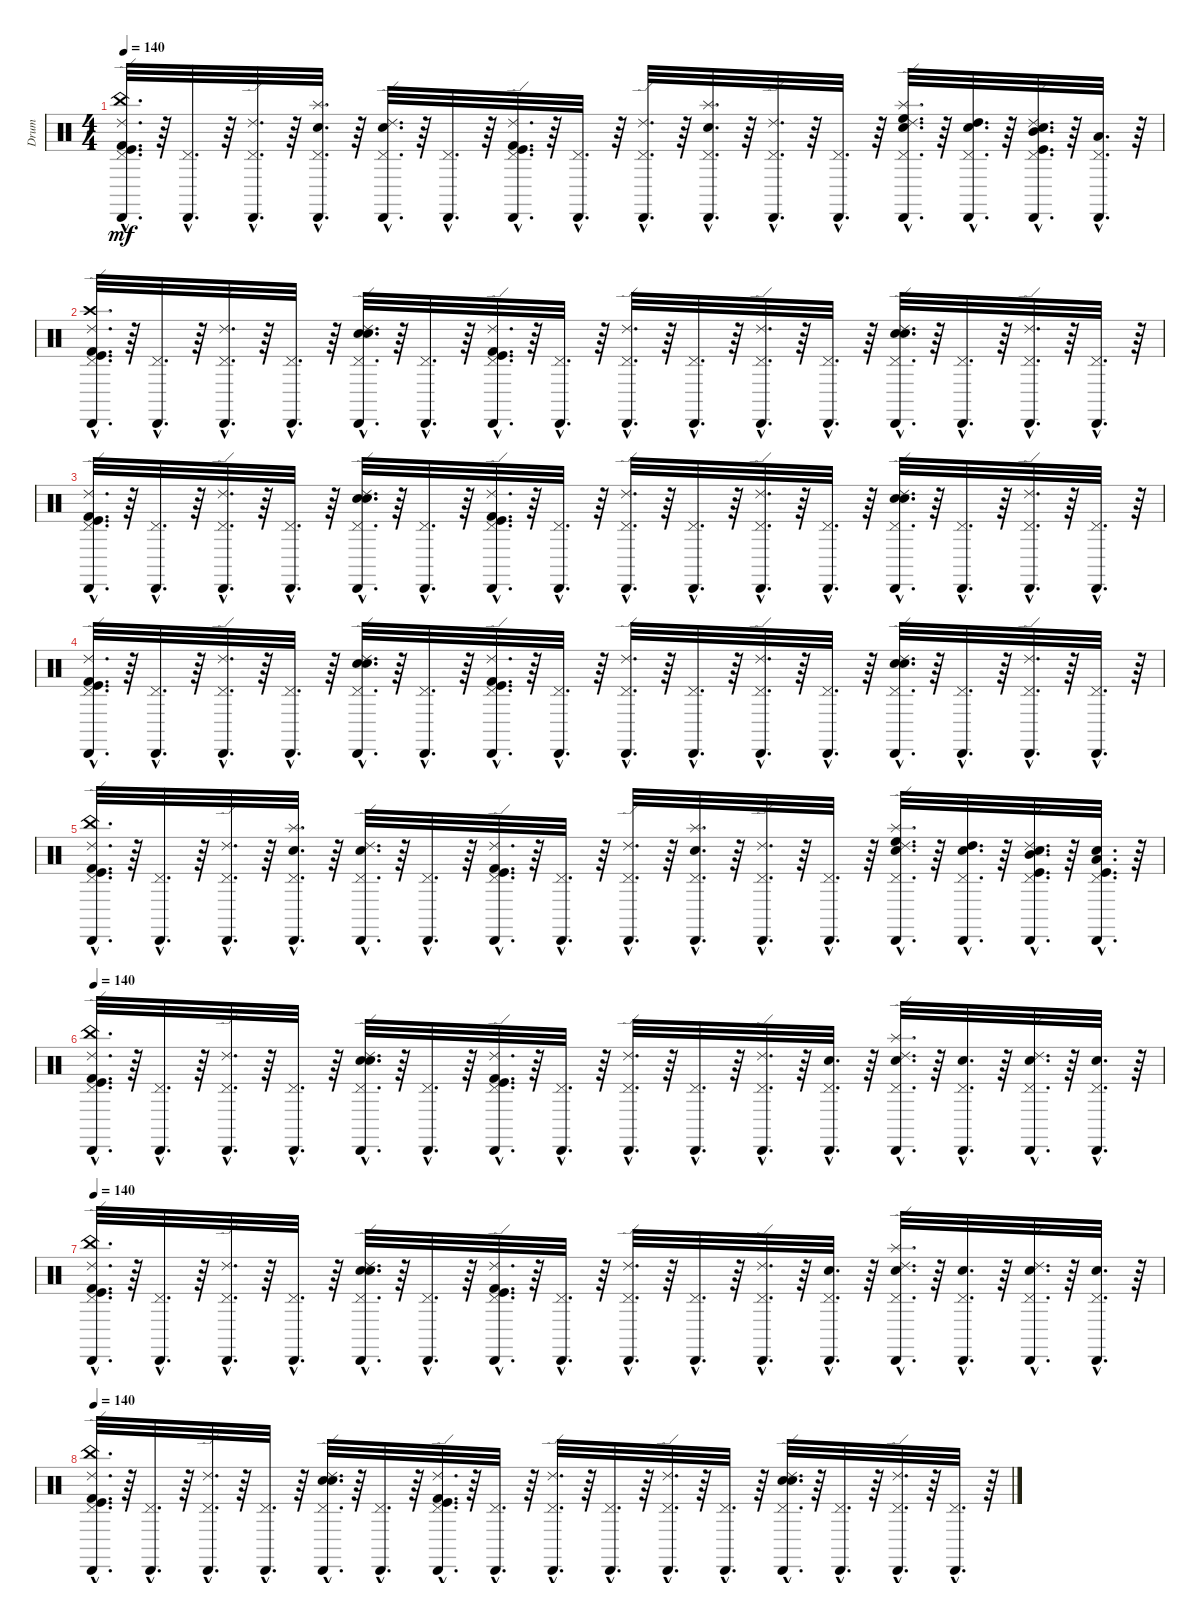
\track ("Drum" "Drum") {instrument percussion}
\staff {score}
\articulation defaults
\ts (4 4)
\tempo 140
\clef neutral
\ks c
("China (hit)"{hac} "Cabasa (hit)"{hac} "Ride (edge) 2"{hac} "Kick (hit) 2"{hac} "Kick (hit)"{hac} "Pedal Hi-Hat (hit)"{hac}).32{d dy mf} r.64 ("Pedal Hi-Hat (hit)"{hac} "Cabasa (hit)"{hac}).32{d} r.64 ("Ride (edge) 2"{hac} "Cabasa (hit)"{hac} "Pedal Hi-Hat (hit)"{hac}).32{d} r.64 ("Splash (hit)"{hac} "Snare (hit) 2"{hac} "Pedal Hi-Hat (hit)"{hac} "Cabasa (hit)"{hac}).32{d} r.64 ("Snare (hit) 2"{hac} "Ride (edge) 2"{hac} "Cabasa (hit)"{hac} "Pedal Hi-Hat (hit)"{hac}).32{d} r.64 ("Cabasa (hit)"{hac} "Pedal Hi-Hat (hit)"{hac}).32{d} r.64 ("Ride (edge) 2"{hac} "Cabasa (hit)"{hac} "Kick (hit)"{hac} "Kick (hit) 2"{hac} "Pedal Hi-Hat (hit)"{hac}).32{d} r.64 ("Pedal Hi-Hat (hit)"{hac} "Cabasa (hit)"{hac}).32{d} r.64 ("Cabasa (hit)"{hac} "Pedal Hi-Hat (hit)"{hac} "Ride (edge) 2"{hac}).32{d} r.64 ("Splash (hit)"{hac} "Snare (hit) 2"{hac} "Pedal Hi-Hat (hit)"{hac} "Cabasa (hit)"{hac}).32{d} r.64 ("Pedal Hi-Hat (hit)"{hac} "Cabasa (hit)"{hac} "Ride (edge) 2"{hac}).32{d} r.64 ("Pedal Hi-Hat (hit)"{hac} "Cabasa (hit)"{hac}).32{d} r.64 ("High Floor Tom (hit)"{hac} "Splash (hit)"{hac} "Snare (hit) 2"{hac} "Ride (edge) 2"{hac} "Cabasa (hit)"{hac} "Pedal Hi-Hat (hit)"{hac}).32{d} r.64 ("High Tom (hit)"{hac} "Snare (hit) 2"{hac} "Pedal Hi-Hat (hit)"{hac} "Cabasa (hit)"{hac}).32{d} r.64 ("Kick (hit)"{hac} "Mid Tom (hit)"{hac} "Snare (hit) 2"{hac} "Ride (edge) 2"{hac} "Cabasa (hit)"{hac} "Pedal Hi-Hat (hit)"{hac}).32{d} r.64 ("Low Tom (hit)"{hac} "Pedal Hi-Hat (hit)"{hac} "Cabasa (hit)"{hac}).32{d} r.64 |
("Crash high (hit)"{hac} "Kick (hit) 2"{hac} "Pedal Hi-Hat (hit)"{hac} "Cabasa (hit)"{hac} "Kick (hit)"{hac} "Ride (edge) 2"{hac}).32{d} r.64 ("Cabasa (hit)"{hac} "Pedal Hi-Hat (hit)"{hac}).32{d} r.64 ("Pedal Hi-Hat (hit)"{hac} "Ride (edge) 2"{hac} "Cabasa (hit)"{hac}).32{d} r.64 ("Cabasa (hit)"{hac} "Pedal Hi-Hat (hit)"{hac}).32{d} r.64 ("Cabasa (hit)"{hac} "Pedal Hi-Hat (hit)"{hac} "Electric Snare (hit)"{hac} "Snare (hit) 2"{hac} "Ride (edge) 2"{hac}).32{d} r.64 ("Cabasa (hit)"{hac} "Pedal Hi-Hat (hit)"{hac}).32{d} r.64 ("Kick (hit)"{hac} "Cabasa (hit)"{hac} "Pedal Hi-Hat (hit)"{hac} "Ride (edge) 2"{hac} "Kick (hit) 2"{hac}).32{d} r.64 ("Pedal Hi-Hat (hit)"{hac} "Cabasa (hit)"{hac}).32{d} r.64 ("Pedal Hi-Hat (hit)"{hac} "Cabasa (hit)"{hac} "Ride (edge) 2"{hac}).32{d} r.64 ("Cabasa (hit)"{hac} "Pedal Hi-Hat (hit)"{hac}).32{d} r.64 ("Cabasa (hit)"{hac} "Ride (edge) 2"{hac} "Pedal Hi-Hat (hit)"{hac}).32{d} r.64 ("Cabasa (hit)"{hac} "Pedal Hi-Hat (hit)"{hac}).32{d} r.64 ("Ride (edge) 2"{hac} "Pedal Hi-Hat (hit)"{hac} "Cabasa (hit)"{hac} "Electric Snare (hit)"{hac} "Snare (hit) 2"{hac}).32{d} r.64 ("Pedal Hi-Hat (hit)"{hac} "Cabasa (hit)"{hac}).32{d} r.64 ("Cabasa (hit)"{hac} "Ride (edge) 2"{hac} "Pedal Hi-Hat (hit)"{hac}).32{d} r.64 ("Cabasa (hit)"{hac} "Pedal Hi-Hat (hit)"{hac}).32{d} r.64 |
("Pedal Hi-Hat (hit)"{hac} "Kick (hit) 2"{hac} "Cabasa (hit)"{hac} "Kick (hit)"{hac} "Ride (edge) 2"{hac}).32{d} r.64 ("Cabasa (hit)"{hac} "Pedal Hi-Hat (hit)"{hac}).32{d} r.64 ("Ride (edge) 2"{hac} "Pedal Hi-Hat (hit)"{hac} "Cabasa (hit)"{hac}).32{d} r.64 ("Pedal Hi-Hat (hit)"{hac} "Cabasa (hit)"{hac}).32{d} r.64 ("Snare (hit) 2"{hac} "Electric Snare (hit)"{hac} "Ride (edge) 2"{hac} "Cabasa (hit)"{hac} "Pedal Hi-Hat (hit)"{hac}).32{d} r.64 ("Pedal Hi-Hat (hit)"{hac} "Cabasa (hit)"{hac}).32{d} r.64 ("Kick (hit) 2"{hac} "Pedal Hi-Hat (hit)"{hac} "Kick (hit)"{hac} "Cabasa (hit)"{hac} "Ride (edge) 2"{hac}).32{d} r.64 ("Cabasa (hit)"{hac} "Pedal Hi-Hat (hit)"{hac}).32{d} r.64 ("Cabasa (hit)"{hac} "Pedal Hi-Hat (hit)"{hac} "Ride (edge) 2"{hac}).32{d} r.64 ("Pedal Hi-Hat (hit)"{hac} "Cabasa (hit)"{hac}).32{d} r.64 ("Ride (edge) 2"{hac} "Cabasa (hit)"{hac} "Pedal Hi-Hat (hit)"{hac}).32{d} r.64 ("Pedal Hi-Hat (hit)"{hac} "Cabasa (hit)"{hac}).32{d} r.64 ("Cabasa (hit)"{hac} "Snare (hit) 2"{hac} "Pedal Hi-Hat (hit)"{hac} "Ride (edge) 2"{hac} "Electric Snare (hit)"{hac}).32{d} r.64 ("Cabasa (hit)"{hac} "Pedal Hi-Hat (hit)"{hac}).32{d} r.64 ("Ride (edge) 2"{hac} "Cabasa (hit)"{hac} "Pedal Hi-Hat (hit)"{hac}).32{d} r.64 ("Pedal Hi-Hat (hit)"{hac} "Cabasa (hit)"{hac}).32{d} r.64 |
("Cabasa (hit)"{hac} "Pedal Hi-Hat (hit)"{hac} "Ride (edge) 2"{hac} "Kick (hit) 2"{hac} "Kick (hit)"{hac}).32{d} r.64 ("Pedal Hi-Hat (hit)"{hac} "Cabasa (hit)"{hac}).32{d} r.64 ("Pedal Hi-Hat (hit)"{hac} "Cabasa (hit)"{hac} "Ride (edge) 2"{hac}).32{d} r.64 ("Pedal Hi-Hat (hit)"{hac} "Cabasa (hit)"{hac}).32{d} r.64 ("Cabasa (hit)"{hac} "Pedal Hi-Hat (hit)"{hac} "Ride (edge) 2"{hac} "Snare (hit) 2"{hac} "Electric Snare (hit)"{hac}).32{d} r.64 ("Pedal Hi-Hat (hit)"{hac} "Cabasa (hit)"{hac}).32{d} r.64 ("Kick (hit) 2"{hac} "Cabasa (hit)"{hac} "Ride (edge) 2"{hac} "Kick (hit)"{hac} "Pedal Hi-Hat (hit)"{hac}).32{d} r.64 ("Pedal Hi-Hat (hit)"{hac} "Cabasa (hit)"{hac}).32{d} r.64 ("Pedal Hi-Hat (hit)"{hac} "Ride (edge) 2"{hac} "Cabasa (hit)"{hac}).32{d} r.64 ("Pedal Hi-Hat (hit)"{hac} "Cabasa (hit)"{hac}).32{d} r.64 ("Pedal Hi-Hat (hit)"{hac} "Cabasa (hit)"{hac} "Ride (edge) 2"{hac}).32{d} r.64 ("Pedal Hi-Hat (hit)"{hac} "Cabasa (hit)"{hac}).32{d} r.64 ("Ride (edge) 2"{hac} "Cabasa (hit)"{hac} "Pedal Hi-Hat (hit)"{hac} "Snare (hit) 2"{hac} "Electric Snare (hit)"{hac}).32{d} r.64 ("Pedal Hi-Hat (hit)"{hac} "Cabasa (hit)"{hac}).32{d} r.64 ("Pedal Hi-Hat (hit)"{hac} "Cabasa (hit)"{hac} "Ride (edge) 2"{hac}).32{d} r.64 ("Pedal Hi-Hat (hit)"{hac} "Cabasa (hit)"{hac}).32{d} r.64 |
("Pedal Hi-Hat (hit)"{hac} "Kick (hit)"{hac} "Kick (hit) 2"{hac} "Ride (edge) 2"{hac} "Cabasa (hit)"{hac} "China (hit)"{hac}).32{d} r.64 ("Cabasa (hit)"{hac} "Pedal Hi-Hat (hit)"{hac}).32{d} r.64 ("Pedal Hi-Hat (hit)"{hac} "Cabasa (hit)"{hac} "Ride (edge) 2"{hac}).32{d} r.64 ("Cabasa (hit)"{hac} "Pedal Hi-Hat (hit)"{hac} "Snare (hit) 2"{hac} "Splash (hit)"{hac}).32{d} r.64 ("Pedal Hi-Hat (hit)"{hac} "Cabasa (hit)"{hac} "Ride (edge) 2"{hac} "Snare (hit) 2"{hac}).32{d} r.64 ("Pedal Hi-Hat (hit)"{hac} "Cabasa (hit)"{hac}).32{d} r.64 ("Pedal Hi-Hat (hit)"{hac} "Kick (hit) 2"{hac} "Kick (hit)"{hac} "Cabasa (hit)"{hac} "Ride (edge) 2"{hac}).32{d} r.64 ("Cabasa (hit)"{hac} "Pedal Hi-Hat (hit)"{hac}).32{d} r.64 ("Ride (edge) 2"{hac} "Pedal Hi-Hat (hit)"{hac} "Cabasa (hit)"{hac}).32{d} r.64 ("Cabasa (hit)"{hac} "Pedal Hi-Hat (hit)"{hac} "Snare (hit) 2"{hac} "Splash (hit)"{hac}).32{d} r.64 ("Ride (edge) 2"{hac} "Cabasa (hit)"{hac} "Pedal Hi-Hat (hit)"{hac}).32{d} r.64 ("Cabasa (hit)"{hac} "Pedal Hi-Hat (hit)"{hac}).32{d} r.64 ("Pedal Hi-Hat (hit)"{hac} "Cabasa (hit)"{hac} "Ride (edge) 2"{hac} "Snare (hit) 2"{hac} "Splash (hit)"{hac} "High Floor Tom (hit)"{hac}).32{d} r.64 ("Cabasa (hit)"{hac} "Pedal Hi-Hat (hit)"{hac} "Snare (hit) 2"{hac} "High Tom (hit)"{hac}).32{d} r.64 ("Pedal Hi-Hat (hit)"{hac} "Cabasa (hit)"{hac} "Ride (edge) 2"{hac} "Snare (hit) 2"{hac} "Mid Tom (hit)"{hac} "Kick (hit)"{hac}).32{d} r.64 ("Cabasa (hit)"{hac} "Pedal Hi-Hat (hit)"{hac} "Snare (hit) 2"{hac} "Low Tom (hit)"{hac} "Kick (hit)"{hac}).32{d} r.64 |
\tempo 140
("Kick (hit)"{hac} "Kick (hit) 2"{hac} "Ride (edge) 2"{hac} "Pedal Hi-Hat (hit)"{hac} "Cabasa (hit)"{hac} "China (hit)"{hac}).32{d} r.64 ("Pedal Hi-Hat (hit)"{hac} "Cabasa (hit)"{hac}).32{d} r.64 ("Cabasa (hit)"{hac} "Ride (edge) 2"{hac} "Pedal Hi-Hat (hit)"{hac}).32{d} r.64 ("Cabasa (hit)"{hac} "Pedal Hi-Hat (hit)"{hac}).32{d} r.64 ("Electric Snare (hit)"{hac} "Cabasa (hit)"{hac} "Snare (hit) 2"{hac} "Ride (edge) 2"{hac} "Pedal Hi-Hat (hit)"{hac}).32{d} r.64 ("Cabasa (hit)"{hac} "Pedal Hi-Hat (hit)"{hac}).32{d} r.64 ("Ride (edge) 2"{hac} "Cabasa (hit)"{hac} "Kick (hit) 2"{hac} "Pedal Hi-Hat (hit)"{hac} "Kick (hit)"{hac}).32{d} r.64 ("Cabasa (hit)"{hac} "Pedal Hi-Hat (hit)"{hac}).32{d} r.64 ("Pedal Hi-Hat (hit)"{hac} "Ride (edge) 2"{hac} "Cabasa (hit)"{hac}).32{d} r.64 ("Pedal Hi-Hat (hit)"{hac} "Cabasa (hit)"{hac}).32{d} r.64 ("Cabasa (hit)"{hac} "Pedal Hi-Hat (hit)"{hac} "Ride (edge) 2"{hac}).32{d} r.64 ("Pedal Hi-Hat (hit)"{hac} "Cabasa (hit)"{hac} "Snare (hit) 2"{hac}).32{d} r.64 ("Splash (hit)"{hac} "Snare (hit) 2"{hac} "Cabasa (hit)"{hac} "Pedal Hi-Hat (hit)"{hac} "Ride (edge) 2"{hac}).32{d} r.64 ("Cabasa (hit)"{hac} "Pedal Hi-Hat (hit)"{hac} "Snare (hit) 2"{hac}).32{d} r.64 ("Ride (edge) 2"{hac} "Cabasa (hit)"{hac} "Pedal Hi-Hat (hit)"{hac} "Snare (hit) 2"{hac}).32{d} r.64 ("Cabasa (hit)"{hac} "Pedal Hi-Hat (hit)"{hac} "Snare (hit) 2"{hac}).32{d} r.64 |
\tempo 140
("China (hit)"{hac} "Cabasa (hit)"{hac} "Kick (hit)"{hac} "Ride (edge) 2"{hac} "Kick (hit) 2"{hac} "Pedal Hi-Hat (hit)"{hac}).32{d} r.64 ("Pedal Hi-Hat (hit)"{hac} "Cabasa (hit)"{hac}).32{d} r.64 ("Cabasa (hit)"{hac} "Pedal Hi-Hat (hit)"{hac} "Ride (edge) 2"{hac}).32{d} r.64 ("Pedal Hi-Hat (hit)"{hac} "Cabasa (hit)"{hac}).32{d} r.64 ("Ride (edge) 2"{hac} "Electric Snare (hit)"{hac} "Cabasa (hit)"{hac} "Snare (hit) 2"{hac} "Pedal Hi-Hat (hit)"{hac}).32{d} r.64 ("Pedal Hi-Hat (hit)"{hac} "Cabasa (hit)"{hac}).32{d} r.64 ("Ride (edge) 2"{hac} "Kick (hit)"{hac} "Cabasa (hit)"{hac} "Pedal Hi-Hat (hit)"{hac} "Kick (hit) 2"{hac}).32{d} r.64 ("Pedal Hi-Hat (hit)"{hac} "Cabasa (hit)"{hac}).32{d} r.64 ("Ride (edge) 2"{hac} "Pedal Hi-Hat (hit)"{hac} "Cabasa (hit)"{hac}).32{d} r.64 ("Cabasa (hit)"{hac} "Pedal Hi-Hat (hit)"{hac}).32{d} r.64 ("Pedal Hi-Hat (hit)"{hac} "Ride (edge) 2"{hac} "Cabasa (hit)"{hac}).32{d} r.64 ("Cabasa (hit)"{hac} "Pedal Hi-Hat (hit)"{hac} "Snare (hit) 2"{hac}).32{d} r.64 ("Splash (hit)"{hac} "Snare (hit) 2"{hac} "Cabasa (hit)"{hac} "Ride (edge) 2"{hac} "Pedal Hi-Hat (hit)"{hac}).32{d} r.64 ("Pedal Hi-Hat (hit)"{hac} "Cabasa (hit)"{hac} "Snare (hit) 2"{hac}).32{d} r.64 ("Pedal Hi-Hat (hit)"{hac} "Cabasa (hit)"{hac} "Snare (hit) 2"{hac} "Ride (edge) 2"{hac}).32{d} r.64 ("Pedal Hi-Hat (hit)"{hac} "Cabasa (hit)"{hac} "Snare (hit) 2"{hac}).32{d} r.64 |
\tempo 140
("China (hit)"{hac} "Kick (hit)"{hac} "Kick (hit) 2"{hac} "Ride (edge) 2"{hac} "Pedal Hi-Hat (hit)"{hac} "Cabasa (hit)"{hac}).32{d} r.64 ("Cabasa (hit)"{hac} "Pedal Hi-Hat (hit)"{hac}).32{d} r.64 ("Ride (edge) 2"{hac} "Cabasa (hit)"{hac} "Pedal Hi-Hat (hit)"{hac}).32{d} r.64 ("Cabasa (hit)"{hac} "Pedal Hi-Hat (hit)"{hac}).32{d} r.64 ("Electric Snare (hit)"{hac} "Snare (hit) 2"{hac} "Ride (edge) 2"{hac} "Pedal Hi-Hat (hit)"{hac} "Cabasa (hit)"{hac}).32{d} r.64 ("Cabasa (hit)"{hac} "Pedal Hi-Hat (hit)"{hac}).32{d} r.64 ("Pedal Hi-Hat (hit)"{hac} "Kick (hit)"{hac} "Ride (edge) 2"{hac} "Cabasa (hit)"{hac} "Kick (hit) 2"{hac}).32{d} r.64 ("Cabasa (hit)"{hac} "Pedal Hi-Hat (hit)"{hac}).32{d} r.64 ("Cabasa (hit)"{hac} "Ride (edge) 2"{hac} "Pedal Hi-Hat (hit)"{hac}).32{d} r.64 ("Cabasa (hit)"{hac} "Pedal Hi-Hat (hit)"{hac}).32{d} r.64 ("Ride (edge) 2"{hac} "Cabasa (hit)"{hac} "Pedal Hi-Hat (hit)"{hac}).32{d} r.64 ("Cabasa (hit)"{hac} "Pedal Hi-Hat (hit)"{hac}).32{d} r.64 ("Electric Snare (hit)"{hac} "Snare (hit) 2"{hac} "Pedal Hi-Hat (hit)"{hac} "Cabasa (hit)"{hac} "Ride (edge) 2"{hac}).32{d} r.64 ("Cabasa (hit)"{hac} "Pedal Hi-Hat (hit)"{hac}).32{d} r.64 ("Ride (edge) 2"{hac} "Cabasa (hit)"{hac} "Pedal Hi-Hat (hit)"{hac}).32{d} r.64 ("Cabasa (hit)"{hac} "Pedal Hi-Hat (hit)"{hac}).32{d} r.64
